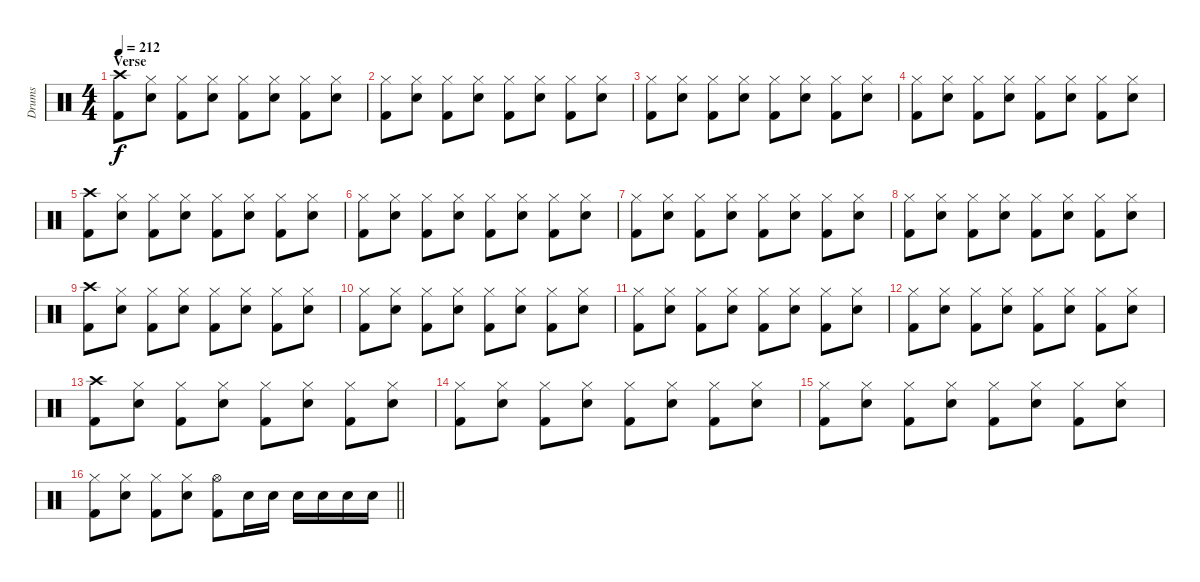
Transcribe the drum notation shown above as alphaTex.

\track ("Drums" "Drums") {instrument percussion}
\staff {score}
\articulation defaults
\ts (4 4)
\section ("" "Verse")
\tempo 212
\clef neutral
\ks c
("Crash high (hit)" "Kick (hit) 2").8{dy f} ("Hi-Hat (closed)" "Electric Snare (hit)").8 ("Hi-Hat (closed)" "Kick (hit) 2").8 ("Hi-Hat (closed)" "Electric Snare (hit)").8 ("Hi-Hat (closed)" "Kick (hit) 2").8 ("Hi-Hat (closed)" "Electric Snare (hit)").8 ("Hi-Hat (closed)" "Kick (hit) 2").8 ("Hi-Hat (closed)" "Electric Snare (hit)").8 |
("Hi-Hat (closed)" "Kick (hit) 2").8 ("Hi-Hat (closed)" "Electric Snare (hit)").8 ("Hi-Hat (closed)" "Kick (hit) 2").8 ("Hi-Hat (closed)" "Electric Snare (hit)").8 ("Hi-Hat (closed)" "Kick (hit) 2").8 ("Hi-Hat (closed)" "Electric Snare (hit)").8 ("Hi-Hat (closed)" "Kick (hit) 2").8 ("Hi-Hat (closed)" "Electric Snare (hit)").8 |
("Hi-Hat (closed)" "Kick (hit) 2").8 ("Hi-Hat (closed)" "Electric Snare (hit)").8 ("Hi-Hat (closed)" "Kick (hit) 2").8 ("Hi-Hat (closed)" "Electric Snare (hit)").8 ("Hi-Hat (closed)" "Kick (hit) 2").8 ("Hi-Hat (closed)" "Electric Snare (hit)").8 ("Hi-Hat (closed)" "Kick (hit) 2").8 ("Hi-Hat (closed)" "Electric Snare (hit)").8 |
("Hi-Hat (closed)" "Kick (hit) 2").8 ("Hi-Hat (closed)" "Electric Snare (hit)").8 ("Hi-Hat (closed)" "Kick (hit) 2").8 ("Hi-Hat (closed)" "Electric Snare (hit)").8 ("Hi-Hat (closed)" "Kick (hit) 2").8 ("Hi-Hat (closed)" "Electric Snare (hit)").8 ("Hi-Hat (closed)" "Kick (hit) 2").8 ("Hi-Hat (closed)" "Electric Snare (hit)").8 |
("Crash high (hit)" "Kick (hit) 2").8 ("Hi-Hat (closed)" "Electric Snare (hit)").8 ("Hi-Hat (closed)" "Kick (hit) 2").8 ("Hi-Hat (closed)" "Electric Snare (hit)").8 ("Hi-Hat (closed)" "Kick (hit) 2").8 ("Hi-Hat (closed)" "Electric Snare (hit)").8 ("Hi-Hat (closed)" "Kick (hit) 2").8 ("Hi-Hat (closed)" "Electric Snare (hit)").8 |
("Hi-Hat (closed)" "Kick (hit) 2").8 ("Hi-Hat (closed)" "Electric Snare (hit)").8 ("Hi-Hat (closed)" "Kick (hit) 2").8 ("Hi-Hat (closed)" "Electric Snare (hit)").8 ("Hi-Hat (closed)" "Kick (hit) 2").8 ("Hi-Hat (closed)" "Electric Snare (hit)").8 ("Hi-Hat (closed)" "Kick (hit) 2").8 ("Hi-Hat (closed)" "Electric Snare (hit)").8 |
("Hi-Hat (closed)" "Kick (hit) 2").8 ("Hi-Hat (closed)" "Electric Snare (hit)").8 ("Hi-Hat (closed)" "Kick (hit) 2").8 ("Hi-Hat (closed)" "Electric Snare (hit)").8 ("Hi-Hat (closed)" "Kick (hit) 2").8 ("Hi-Hat (closed)" "Electric Snare (hit)").8 ("Hi-Hat (closed)" "Kick (hit) 2").8 ("Hi-Hat (closed)" "Electric Snare (hit)").8 |
("Hi-Hat (closed)" "Kick (hit) 2").8 ("Hi-Hat (closed)" "Electric Snare (hit)").8 ("Hi-Hat (closed)" "Kick (hit) 2").8 ("Hi-Hat (closed)" "Electric Snare (hit)").8 ("Hi-Hat (closed)" "Kick (hit) 2").8 ("Hi-Hat (closed)" "Electric Snare (hit)").8 ("Hi-Hat (closed)" "Kick (hit) 2").8 ("Hi-Hat (closed)" "Electric Snare (hit)").8 |
("Crash high (hit)" "Kick (hit) 2").8 ("Hi-Hat (closed)" "Electric Snare (hit)").8 ("Hi-Hat (closed)" "Kick (hit) 2").8 ("Hi-Hat (closed)" "Electric Snare (hit)").8 ("Hi-Hat (closed)" "Kick (hit) 2").8 ("Hi-Hat (closed)" "Electric Snare (hit)").8 ("Hi-Hat (closed)" "Kick (hit) 2").8 ("Hi-Hat (closed)" "Electric Snare (hit)").8 |
("Hi-Hat (closed)" "Kick (hit) 2").8 ("Hi-Hat (closed)" "Electric Snare (hit)").8 ("Hi-Hat (closed)" "Kick (hit) 2").8 ("Hi-Hat (closed)" "Electric Snare (hit)").8 ("Hi-Hat (closed)" "Kick (hit) 2").8 ("Hi-Hat (closed)" "Electric Snare (hit)").8 ("Hi-Hat (closed)" "Kick (hit) 2").8 ("Hi-Hat (closed)" "Electric Snare (hit)").8 |
("Hi-Hat (closed)" "Kick (hit) 2").8 ("Hi-Hat (closed)" "Electric Snare (hit)").8 ("Hi-Hat (closed)" "Kick (hit) 2").8 ("Hi-Hat (closed)" "Electric Snare (hit)").8 ("Hi-Hat (closed)" "Kick (hit) 2").8 ("Hi-Hat (closed)" "Electric Snare (hit)").8 ("Hi-Hat (closed)" "Kick (hit) 2").8 ("Hi-Hat (closed)" "Electric Snare (hit)").8 |
("Hi-Hat (closed)" "Kick (hit) 2").8 ("Hi-Hat (closed)" "Electric Snare (hit)").8 ("Hi-Hat (closed)" "Kick (hit) 2").8 ("Hi-Hat (closed)" "Electric Snare (hit)").8 ("Hi-Hat (closed)" "Kick (hit) 2").8 ("Hi-Hat (closed)" "Electric Snare (hit)").8 ("Hi-Hat (closed)" "Kick (hit) 2").8 ("Hi-Hat (closed)" "Electric Snare (hit)").8 |
("Crash high (hit)" "Kick (hit) 2").8 ("Hi-Hat (closed)" "Electric Snare (hit)").8 ("Hi-Hat (closed)" "Kick (hit) 2").8 ("Hi-Hat (closed)" "Electric Snare (hit)").8 ("Hi-Hat (closed)" "Kick (hit) 2").8 ("Hi-Hat (closed)" "Electric Snare (hit)").8 ("Hi-Hat (closed)" "Kick (hit) 2").8 ("Hi-Hat (closed)" "Electric Snare (hit)").8 |
("Hi-Hat (closed)" "Kick (hit) 2").8 ("Hi-Hat (closed)" "Electric Snare (hit)").8 ("Hi-Hat (closed)" "Kick (hit) 2").8 ("Hi-Hat (closed)" "Electric Snare (hit)").8 ("Hi-Hat (closed)" "Kick (hit) 2").8 ("Hi-Hat (closed)" "Electric Snare (hit)").8 ("Hi-Hat (closed)" "Kick (hit) 2").8 ("Hi-Hat (closed)" "Electric Snare (hit)").8 |
("Hi-Hat (closed)" "Kick (hit) 2").8 ("Hi-Hat (closed)" "Electric Snare (hit)").8 ("Hi-Hat (closed)" "Kick (hit) 2").8 ("Hi-Hat (closed)" "Electric Snare (hit)").8 ("Hi-Hat (closed)" "Kick (hit) 2").8 ("Hi-Hat (closed)" "Electric Snare (hit)").8 ("Hi-Hat (closed)" "Kick (hit) 2").8 ("Hi-Hat (closed)" "Electric Snare (hit)").8 |
\barLineRight lightlight
("Hi-Hat (closed)" "Kick (hit) 2").8 ("Hi-Hat (closed)" "Electric Snare (hit)").8 ("Hi-Hat (closed)" "Kick (hit) 2").8 ("Hi-Hat (closed)" "Electric Snare (hit)").8 ("Hi-Hat (open)" "Kick (hit) 2").8 "Electric Snare (hit)".16 "Electric Snare (hit)".16 "Electric Snare (hit)".16 "Electric Snare (hit)".16 "Electric Snare (hit)".16 "Electric Snare (hit)".16
